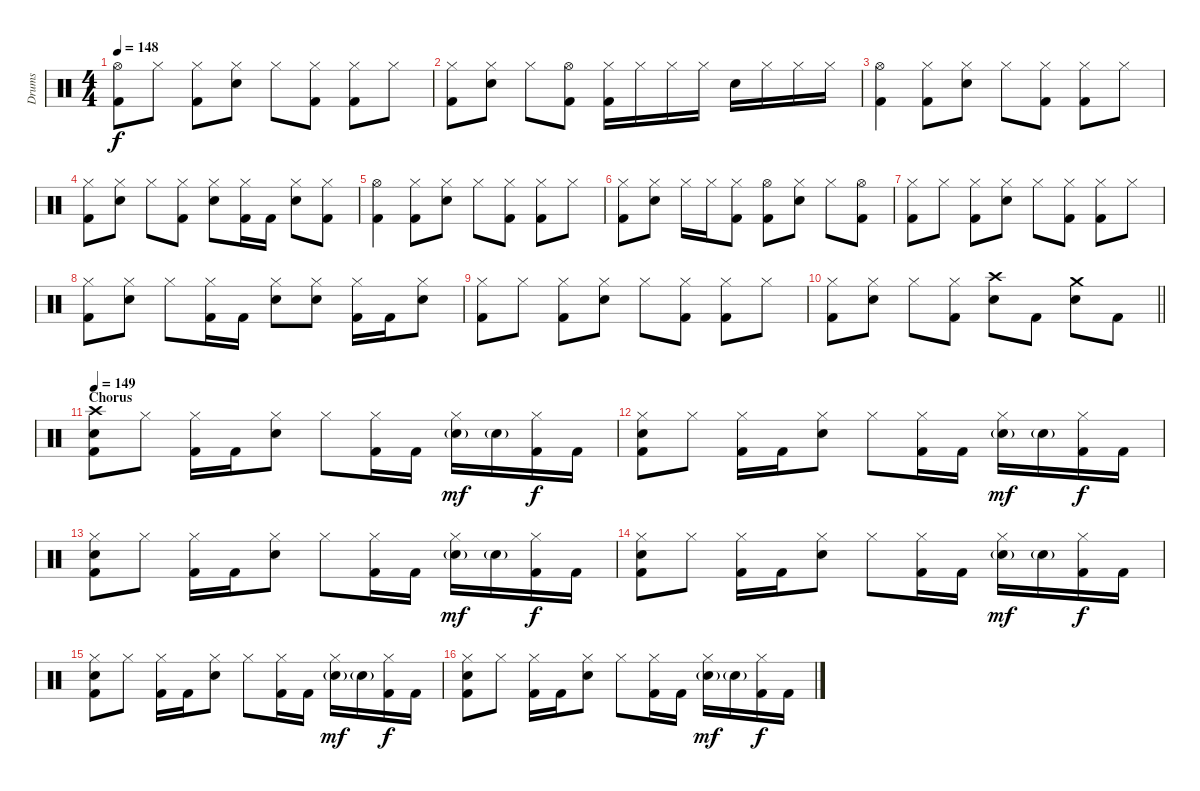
\track ("Drums" "Drums") {instrument percussion}
\staff {score}
\articulation defaults
\ts (4 4)
\tempo 148
\clef neutral
\ks c
("Hi-Hat (open)" "Kick (hit) 2").8{dy f} "Hi-Hat (closed)".8 ("Hi-Hat (closed)" "Kick (hit) 2").8 ("Hi-Hat (closed)" "Snare (hit) 2").8 "Hi-Hat (closed)".8 ("Hi-Hat (closed)" "Kick (hit) 2").8 ("Hi-Hat (closed)" "Kick (hit) 2").8 "Hi-Hat (closed)".8 |
("Hi-Hat (closed)" "Kick (hit) 2").8 ("Hi-Hat (closed)" "Snare (hit) 2").8 "Hi-Hat (closed)".8 ("Hi-Hat (open)" "Kick (hit) 2").8 ("Hi-Hat (closed)" "Kick (hit) 2").16 "Hi-Hat (closed)".16 "Hi-Hat (closed)".16 "Hi-Hat (closed)".16 "Snare (hit) 2".16 "Hi-Hat (closed)".16 "Hi-Hat (closed)".16 "Hi-Hat (closed)".16 |
("Hi-Hat (open)" "Kick (hit) 2").4 ("Hi-Hat (closed)" "Kick (hit) 2").8 ("Hi-Hat (closed)" "Snare (hit) 2").8 "Hi-Hat (closed)".8 ("Hi-Hat (closed)" "Kick (hit) 2").8 ("Hi-Hat (closed)" "Kick (hit) 2").8 "Hi-Hat (closed)".8 |
("Hi-Hat (closed)" "Kick (hit) 2").8 ("Hi-Hat (closed)" "Snare (hit) 2").8 "Hi-Hat (closed)".8 ("Hi-Hat (closed)" "Kick (hit) 2").8 ("Hi-Hat (closed)" "Snare (hit) 2").8 ("Hi-Hat (closed)" "Kick (hit) 2").16 "Kick (hit) 2".16 ("Hi-Hat (closed)" "Snare (hit) 2").8 ("Hi-Hat (closed)" "Kick (hit) 2").8 |
("Hi-Hat (open)" "Kick (hit) 2").4 ("Hi-Hat (closed)" "Kick (hit) 2").8 ("Hi-Hat (closed)" "Snare (hit) 2").8 "Hi-Hat (closed)".8 ("Hi-Hat (closed)" "Kick (hit) 2").8 ("Hi-Hat (closed)" "Kick (hit) 2").8 "Hi-Hat (closed)".8 |
("Hi-Hat (closed)" "Kick (hit) 2").8 ("Hi-Hat (closed)" "Snare (hit) 2").8 "Hi-Hat (closed)".16 "Hi-Hat (closed)".16 ("Hi-Hat (closed)" "Kick (hit) 2").8 ("Hi-Hat (open)" "Kick (hit) 2").8 ("Hi-Hat (closed)" "Snare (hit) 2").8 "Hi-Hat (closed)".8 ("Hi-Hat (open)" "Kick (hit) 2").8 |
("Hi-Hat (closed)" "Kick (hit) 2").8 "Hi-Hat (closed)".8 ("Hi-Hat (closed)" "Kick (hit) 2").8 ("Hi-Hat (closed)" "Snare (hit) 2").8 "Hi-Hat (closed)".8 ("Hi-Hat (closed)" "Kick (hit) 2").8 ("Hi-Hat (closed)" "Kick (hit) 2").8 "Hi-Hat (closed)".8 |
("Hi-Hat (closed)" "Kick (hit) 2").8 ("Hi-Hat (closed)" "Snare (hit) 2").8 "Hi-Hat (closed)".8 ("Hi-Hat (closed)" "Kick (hit) 2").16 "Kick (hit) 2".16 ("Hi-Hat (closed)" "Snare (hit) 2").8 ("Hi-Hat (closed)" "Snare (hit) 2").8 ("Hi-Hat (closed)" "Kick (hit) 2").16 "Kick (hit) 2".16 ("Hi-Hat (closed)" "Snare (hit) 2").8 |
("Hi-Hat (closed)" "Kick (hit) 2").8 "Hi-Hat (closed)".8 ("Hi-Hat (closed)" "Kick (hit) 2").8 ("Hi-Hat (closed)" "Snare (hit) 2").8 "Hi-Hat (closed)".8 ("Hi-Hat (closed)" "Kick (hit) 2").8 ("Hi-Hat (closed)" "Kick (hit) 2").8 "Hi-Hat (closed)".8 |
\barLineRight lightlight
("Hi-Hat (closed)" "Kick (hit) 2").8 ("Hi-Hat (closed)" "Snare (hit) 2").8 "Hi-Hat (closed)".8 ("Hi-Hat (closed)" "Kick (hit) 2").8 ("Crash high (hit)" "Snare (hit) 2").8 "Kick (hit) 2".8 ("Crash medium (hit)" "Snare (hit) 2").8 "Kick (hit) 2".8 |
\section ("" "Chorus")
\tempo 149
("Crash high (hit)" "Snare (hit) 2" "Kick (hit) 2").8 "Hi-Hat (closed)".8 ("Hi-Hat (closed)" "Kick (hit) 2").16 "Kick (hit) 2".16 ("Hi-Hat (closed)" "Snare (hit) 2").8 "Hi-Hat (closed)".8 ("Hi-Hat (closed)" "Kick (hit) 2").16 "Kick (hit) 2".16 ("Hi-Hat (closed)" "Snare (hit) 2"{g}).16{dy mf} "Snare (hit) 2"{g}.16 ("Hi-Hat (closed)" "Kick (hit) 2").16{dy f} "Kick (hit) 2".16 |
("Hi-Hat (closed)" "Snare (hit) 2" "Kick (hit) 2").8 "Hi-Hat (closed)".8 ("Hi-Hat (closed)" "Kick (hit) 2").16 "Kick (hit) 2".16 ("Hi-Hat (closed)" "Snare (hit) 2").8 "Hi-Hat (closed)".8 ("Hi-Hat (closed)" "Kick (hit) 2").16 "Kick (hit) 2".16 ("Hi-Hat (closed)" "Snare (hit) 2"{g}).16{dy mf} "Snare (hit) 2"{g}.16 ("Hi-Hat (closed)" "Kick (hit) 2").16{dy f} "Kick (hit) 2".16 |
("Hi-Hat (closed)" "Snare (hit) 2" "Kick (hit) 2").8 "Hi-Hat (closed)".8 ("Hi-Hat (closed)" "Kick (hit) 2").16 "Kick (hit) 2".16 ("Hi-Hat (closed)" "Snare (hit) 2").8 "Hi-Hat (closed)".8 ("Hi-Hat (closed)" "Kick (hit) 2").16 "Kick (hit) 2".16 ("Hi-Hat (closed)" "Snare (hit) 2"{g}).16{dy mf} "Snare (hit) 2"{g}.16 ("Hi-Hat (closed)" "Kick (hit) 2").16{dy f} "Kick (hit) 2".16 |
("Hi-Hat (closed)" "Snare (hit) 2" "Kick (hit) 2").8 "Hi-Hat (closed)".8 ("Hi-Hat (closed)" "Kick (hit) 2").16 "Kick (hit) 2".16 ("Hi-Hat (closed)" "Snare (hit) 2").8 "Hi-Hat (closed)".8 ("Hi-Hat (closed)" "Kick (hit) 2").16 "Kick (hit) 2".16 ("Hi-Hat (closed)" "Snare (hit) 2"{g}).16{dy mf} "Snare (hit) 2"{g}.16 ("Hi-Hat (closed)" "Kick (hit) 2").16{dy f} "Kick (hit) 2".16 |
("Hi-Hat (closed)" "Snare (hit) 2" "Kick (hit) 2").8 "Hi-Hat (closed)".8 ("Hi-Hat (closed)" "Kick (hit) 2").16 "Kick (hit) 2".16 ("Hi-Hat (closed)" "Snare (hit) 2").8 "Hi-Hat (closed)".8 ("Hi-Hat (closed)" "Kick (hit) 2").16 "Kick (hit) 2".16 ("Hi-Hat (closed)" "Snare (hit) 2"{g}).16{dy mf} "Snare (hit) 2"{g}.16 ("Hi-Hat (closed)" "Kick (hit) 2").16{dy f} "Kick (hit) 2".16 |
("Hi-Hat (closed)" "Snare (hit) 2" "Kick (hit) 2").8 "Hi-Hat (closed)".8 ("Hi-Hat (closed)" "Kick (hit) 2").16 "Kick (hit) 2".16 ("Hi-Hat (closed)" "Snare (hit) 2").8 "Hi-Hat (closed)".8 ("Hi-Hat (closed)" "Kick (hit) 2").16 "Kick (hit) 2".16 ("Hi-Hat (closed)" "Snare (hit) 2"{g}).16{dy mf} "Snare (hit) 2"{g}.16 ("Hi-Hat (closed)" "Kick (hit) 2").16{dy f} "Kick (hit) 2".16
